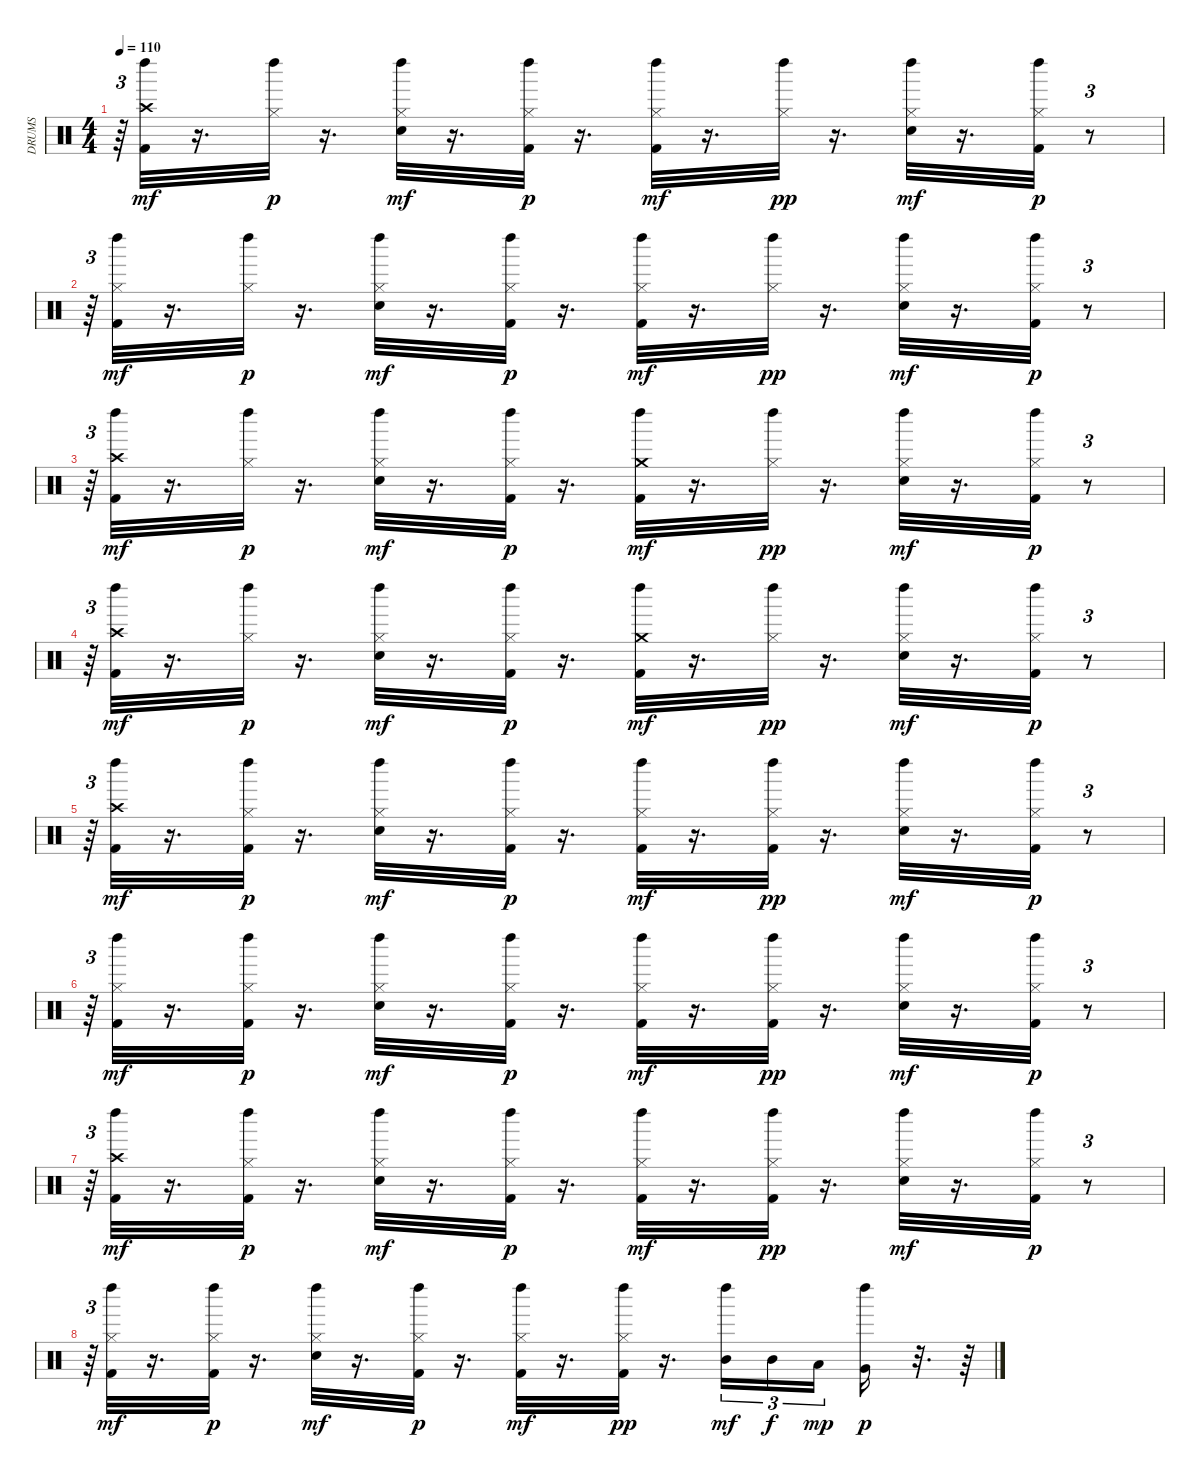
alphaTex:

\track ("DRUMS" "DRUMS") {instrument percussion}
\staff {score}
\articulation defaults
\ts (4 4)
\tempo 110
\clef neutral
\ks c
r.64{tu (3 2) dy p} ("Kick (hit) 2" "Crash high (hit)" "Left Maraca (hit)").32{dy mf} r.16{d} ("Hi-Hat (closed)" "Left Maraca (hit)").32{dy p} r.16{d} ("Snare (hit) 2" "Hi-Hat (closed)" "Left Maraca (hit)").32{dy mf} r.16{d} ("Kick (hit) 2" "Hi-Hat (closed)" "Left Maraca (hit)").32{dy p} r.16{d} ("Kick (hit) 2" "Hi-Hat (closed)" "Left Maraca (hit)").32{dy mf} r.16{d} ("Hi-Hat (closed)" "Left Maraca (hit)").32{dy pp} r.16{d} ("Snare (hit) 2" "Hi-Hat (closed)" "Left Maraca (hit)").32{dy mf} r.16{d} ("Kick (hit) 2" "Hi-Hat (closed)" "Left Maraca (hit)").32{dy p} r.8{tu (3 2)} |
r.64{tu (3 2)} ("Kick (hit) 2" "Hi-Hat (closed)" "Left Maraca (hit)").32{dy mf} r.16{d} ("Hi-Hat (closed)" "Left Maraca (hit)").32{dy p} r.16{d} ("Snare (hit) 2" "Hi-Hat (closed)" "Left Maraca (hit)").32{dy mf} r.16{d} ("Kick (hit) 2" "Hi-Hat (closed)" "Left Maraca (hit)").32{dy p} r.16{d} ("Kick (hit) 2" "Hi-Hat (closed)" "Left Maraca (hit)").32{dy mf} r.16{d} ("Hi-Hat (closed)" "Left Maraca (hit)").32{dy pp} r.16{d} ("Snare (hit) 2" "Hi-Hat (closed)" "Left Maraca (hit)").32{dy mf} r.16{d} ("Kick (hit) 2" "Hi-Hat (closed)" "Left Maraca (hit)").32{dy p} r.8{tu (3 2)} |
r.64{tu (3 2)} ("Kick (hit) 2" "Crash high (hit)" "Left Maraca (hit)").32{dy mf} r.16{d} ("Hi-Hat (closed)" "Left Maraca (hit)").32{dy p} r.16{d} ("Snare (hit) 2" "Hi-Hat (closed)" "Left Maraca (hit)").32{dy mf} r.16{d} ("Kick (hit) 2" "Hi-Hat (closed)" "Left Maraca (hit)").32{dy p} r.16{d} ("Kick (hit) 2" "Crash medium (hit)" "Left Maraca (hit)").32{dy mf} r.16{d} ("Hi-Hat (closed)" "Left Maraca (hit)").32{dy pp} r.16{d} ("Snare (hit) 2" "Hi-Hat (closed)" "Left Maraca (hit)").32{dy mf} r.16{d} ("Kick (hit) 2" "Hi-Hat (closed)" "Left Maraca (hit)").32{dy p} r.8{tu (3 2)} |
r.64{tu (3 2)} ("Kick (hit) 2" "Crash high (hit)" "Left Maraca (hit)").32{dy mf} r.16{d} ("Hi-Hat (closed)" "Left Maraca (hit)").32{dy p} r.16{d} ("Snare (hit) 2" "Hi-Hat (closed)" "Left Maraca (hit)").32{dy mf} r.16{d} ("Kick (hit) 2" "Hi-Hat (closed)" "Left Maraca (hit)").32{dy p} r.16{d} ("Kick (hit) 2" "Crash medium (hit)" "Left Maraca (hit)").32{dy mf} r.16{d} ("Hi-Hat (closed)" "Left Maraca (hit)").32{dy pp} r.16{d} ("Snare (hit) 2" "Hi-Hat (closed)" "Left Maraca (hit)").32{dy mf} r.16{d} ("Kick (hit) 2" "Hi-Hat (closed)" "Left Maraca (hit)").32{dy p} r.8{tu (3 2)} |
r.64{tu (3 2)} ("Kick (hit) 2" "Crash high (hit)" "Left Maraca (hit)").32{dy mf} r.16{d} ("Kick (hit) 2" "Hi-Hat (closed)" "Left Maraca (hit)").32{dy p} r.16{d} ("Snare (hit) 2" "Hi-Hat (closed)" "Left Maraca (hit)").32{dy mf} r.16{d} ("Kick (hit) 2" "Hi-Hat (closed)" "Left Maraca (hit)").32{dy p} r.16{d} ("Kick (hit) 2" "Hi-Hat (closed)" "Left Maraca (hit)").32{dy mf} r.16{d} ("Kick (hit) 2" "Hi-Hat (closed)" "Left Maraca (hit)").32{dy pp} r.16{d} ("Snare (hit) 2" "Hi-Hat (closed)" "Left Maraca (hit)").32{dy mf} r.16{d} ("Kick (hit) 2" "Hi-Hat (closed)" "Left Maraca (hit)").32{dy p} r.8{tu (3 2)} |
r.64{tu (3 2)} ("Kick (hit) 2" "Hi-Hat (closed)" "Left Maraca (hit)").32{dy mf} r.16{d} ("Kick (hit) 2" "Hi-Hat (closed)" "Left Maraca (hit)").32{dy p} r.16{d} ("Snare (hit) 2" "Hi-Hat (closed)" "Left Maraca (hit)").32{dy mf} r.16{d} ("Kick (hit) 2" "Hi-Hat (closed)" "Left Maraca (hit)").32{dy p} r.16{d} ("Kick (hit) 2" "Hi-Hat (closed)" "Left Maraca (hit)").32{dy mf} r.16{d} ("Kick (hit) 2" "Hi-Hat (closed)" "Left Maraca (hit)").32{dy pp} r.16{d} ("Snare (hit) 2" "Hi-Hat (closed)" "Left Maraca (hit)").32{dy mf} r.16{d} ("Kick (hit) 2" "Hi-Hat (closed)" "Left Maraca (hit)").32{dy p} r.8{tu (3 2)} |
r.64{tu (3 2)} ("Kick (hit) 2" "Crash high (hit)" "Left Maraca (hit)").32{dy mf} r.16{d} ("Kick (hit) 2" "Hi-Hat (closed)" "Left Maraca (hit)").32{dy p} r.16{d} ("Snare (hit) 2" "Hi-Hat (closed)" "Left Maraca (hit)").32{dy mf} r.16{d} ("Kick (hit) 2" "Hi-Hat (closed)" "Left Maraca (hit)").32{dy p} r.16{d} ("Kick (hit) 2" "Hi-Hat (closed)" "Left Maraca (hit)").32{dy mf} r.16{d} ("Kick (hit) 2" "Hi-Hat (closed)" "Left Maraca (hit)").32{dy pp} r.16{d} ("Snare (hit) 2" "Hi-Hat (closed)" "Left Maraca (hit)").32{dy mf} r.16{d} ("Kick (hit) 2" "Hi-Hat (closed)" "Left Maraca (hit)").32{dy p} r.8{tu (3 2)} |
r.64{tu (3 2)} ("Kick (hit) 2" "Hi-Hat (closed)" "Left Maraca (hit)").32{dy mf} r.16{d} ("Kick (hit) 2" "Hi-Hat (closed)" "Left Maraca (hit)").32{dy p} r.16{d} ("Snare (hit) 2" "Hi-Hat (closed)" "Left Maraca (hit)").32{dy mf} r.16{d} ("Kick (hit) 2" "Hi-Hat (closed)" "Left Maraca (hit)").32{dy p} r.16{d} ("Kick (hit) 2" "Hi-Hat (closed)" "Left Maraca (hit)").32{dy mf} r.16{d} ("Kick (hit) 2" "Hi-Hat (closed)" "Left Maraca (hit)").32{dy pp} r.16{d} ("Mid Tom (hit)" "Left Maraca (hit)").16{tu (3 2) dy mf} "Mid Tom (hit)".16{tu (3 2) dy f} "Low Tom (hit)".16{tu (3 2) dy mp beam splitsecondary} ("Very Low Tom (hit)" "Left Maraca (hit)").16{dy p} r.32{d} r.64
